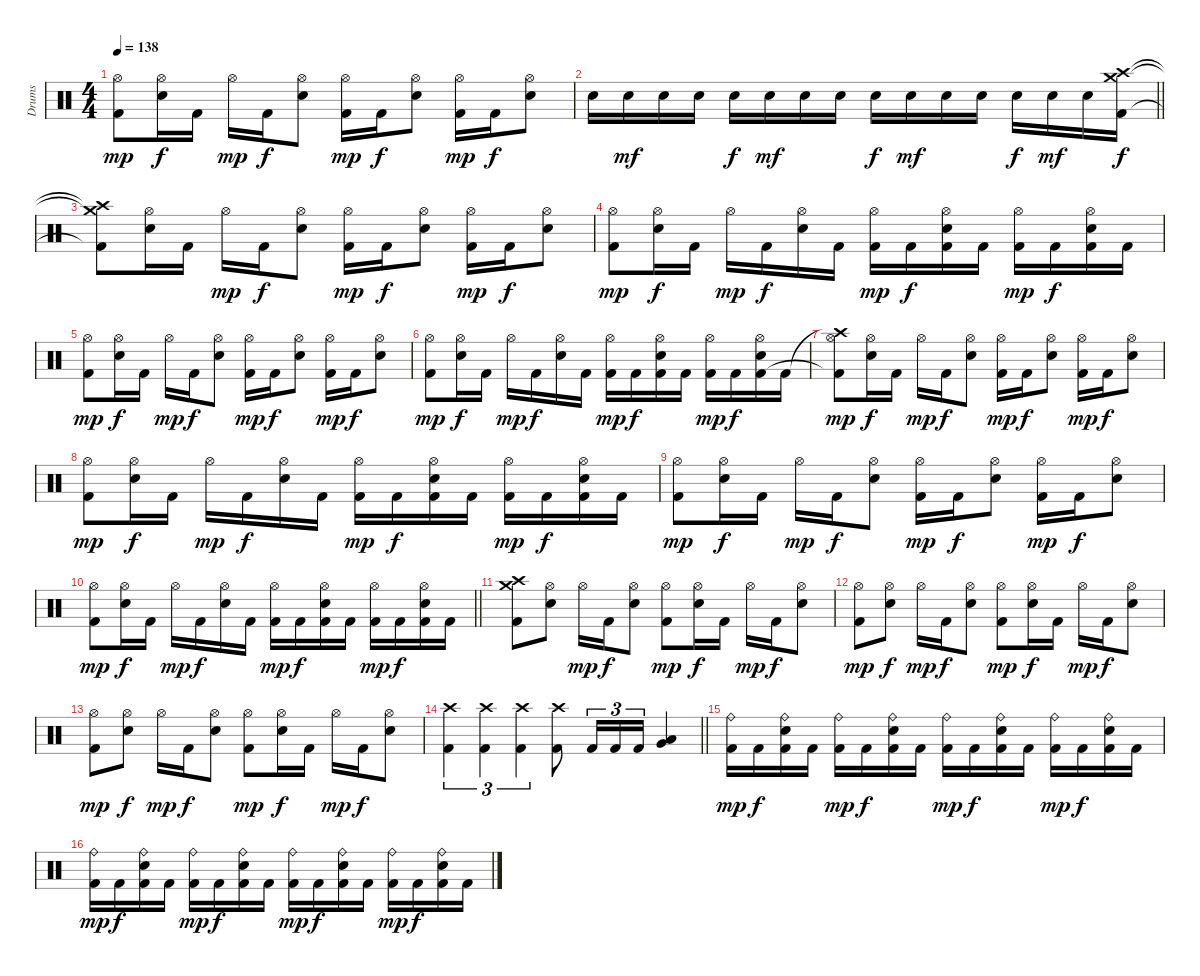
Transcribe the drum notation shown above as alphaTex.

\track ("Drums" "Drums") {instrument percussion}
\staff {score}
\articulation defaults
\ts (4 4)
\tempo 138
\clef neutral
\ks c
("Hi-Hat (open)" "Kick (hit) 2").8{dy mp} ("Hi-Hat (open)" "Electric Snare (hit)").16{dy f} "Kick (hit) 2".16 "Hi-Hat (open)".16{dy mp} "Kick (hit) 2".16{dy f} ("Hi-Hat (open)" "Electric Snare (hit)").8 ("Hi-Hat (open)" "Kick (hit) 2").16{dy mp} "Kick (hit) 2".16{dy f} ("Hi-Hat (open)" "Electric Snare (hit)").8 ("Hi-Hat (open)" "Kick (hit) 2").16{dy mp} "Kick (hit) 2".16{dy f} ("Hi-Hat (open)" "Electric Snare (hit)").8 |
\barLineRight lightlight "Electric Snare (hit)".16 "Electric Snare (hit)".16{dy mf} "Electric Snare (hit)".16 "Electric Snare (hit)".16 "Electric Snare (hit)".16{dy f} "Electric Snare (hit)".16{dy mf} "Electric Snare (hit)".16 "Electric Snare (hit)".16 "Electric Snare (hit)".16{dy f} "Electric Snare (hit)".16{dy mf} "Electric Snare (hit)".16 "Electric Snare (hit)".16 "Electric Snare (hit)".16{dy f} "Electric Snare (hit)".16{dy mf} "Electric Snare (hit)".16
("Crash high (hit)" "Crash medium (hit)" "Kick (hit) 2").16{dy f} |
("Crash high (hit)"{t} "Crash medium (hit)"{t} "Kick (hit) 2"{t}).8 ("Hi-Hat (open)" "Electric Snare (hit)").16 "Kick (hit) 2".16 "Hi-Hat (open)".16{dy mp} "Kick (hit) 2".16{dy f} ("Hi-Hat (open)" "Electric Snare (hit)").8 ("Hi-Hat (open)" "Kick (hit) 2").16{dy mp} "Kick (hit) 2".16{dy f} ("Hi-Hat (open)" "Electric Snare (hit)").8 ("Hi-Hat (open)" "Kick (hit) 2").16{dy mp} "Kick (hit) 2".16{dy f} ("Hi-Hat (open)" "Electric Snare (hit)").8 |
("Hi-Hat (open)" "Kick (hit) 2").8{dy mp} ("Hi-Hat (open)" "Electric Snare (hit)").16{dy f} "Kick (hit) 2".16 "Hi-Hat (open)".16{dy mp} "Kick (hit) 2".16{dy f} ("Hi-Hat (open)" "Electric Snare (hit)").16 "Kick (hit) 2".16 ("Hi-Hat (open)" "Kick (hit) 2").16{dy mp} "Kick (hit) 2".16{dy f} ("Hi-Hat (open)" "Electric Snare (hit)" "Kick (hit) 2").16 "Kick (hit) 2".16 ("Hi-Hat (open)" "Kick (hit) 2").16{dy mp} "Kick (hit) 2".16{dy f} ("Hi-Hat (open)" "Electric Snare (hit)" "Kick (hit) 2").16 "Kick (hit) 2".16 |
("Hi-Hat (open)" "Kick (hit) 2").8{dy mp} ("Hi-Hat (open)" "Electric Snare (hit)").16{dy f} "Kick (hit) 2".16 "Hi-Hat (open)".16{dy mp} "Kick (hit) 2".16{dy f} ("Hi-Hat (open)" "Electric Snare (hit)").8 ("Hi-Hat (open)" "Kick (hit) 2").16{dy mp} "Kick (hit) 2".16{dy f} ("Hi-Hat (open)" "Electric Snare (hit)").8 ("Hi-Hat (open)" "Kick (hit) 2").16{dy mp} "Kick (hit) 2".16{dy f} ("Hi-Hat (open)" "Electric Snare (hit)").8 |
("Hi-Hat (open)" "Kick (hit) 2").8{dy mp} ("Hi-Hat (open)" "Electric Snare (hit)").16{dy f} "Kick (hit) 2".16 "Hi-Hat (open)".16{dy mp} "Kick (hit) 2".16{dy f} ("Hi-Hat (open)" "Electric Snare (hit)").16 "Kick (hit) 2".16 ("Hi-Hat (open)" "Kick (hit) 2").16{dy mp} "Kick (hit) 2".16{dy f} ("Hi-Hat (open)" "Electric Snare (hit)" "Kick (hit) 2").16 "Kick (hit) 2".16 ("Hi-Hat (open)" "Kick (hit) 2").16{dy mp} "Kick (hit) 2".16{dy f} ("Hi-Hat (open)" "Electric Snare (hit)" "Kick (hit) 2").16 "Kick (hit) 2".16 |
("Crash high (hit)"{t} "Hi-Hat (open)" "Kick (hit) 2"{t}).8{dy mp} ("Hi-Hat (open)" "Electric Snare (hit)").16{dy f} "Kick (hit) 2".16 "Hi-Hat (open)".16{dy mp} "Kick (hit) 2".16{dy f} ("Hi-Hat (open)" "Electric Snare (hit)").8 ("Hi-Hat (open)" "Kick (hit) 2").16{dy mp} "Kick (hit) 2".16{dy f} ("Hi-Hat (open)" "Electric Snare (hit)").8 ("Hi-Hat (open)" "Kick (hit) 2").16{dy mp} "Kick (hit) 2".16{dy f} ("Hi-Hat (open)" "Electric Snare (hit)").8 |
("Hi-Hat (open)" "Kick (hit) 2").8{dy mp} ("Hi-Hat (open)" "Electric Snare (hit)").16{dy f} "Kick (hit) 2".16 "Hi-Hat (open)".16{dy mp} "Kick (hit) 2".16{dy f} ("Hi-Hat (open)" "Electric Snare (hit)").16 "Kick (hit) 2".16 ("Hi-Hat (open)" "Kick (hit) 2").16{dy mp} "Kick (hit) 2".16{dy f} ("Hi-Hat (open)" "Electric Snare (hit)" "Kick (hit) 2").16 "Kick (hit) 2".16 ("Hi-Hat (open)" "Kick (hit) 2").16{dy mp} "Kick (hit) 2".16{dy f} ("Hi-Hat (open)" "Electric Snare (hit)" "Kick (hit) 2").16 "Kick (hit) 2".16 |
("Hi-Hat (open)" "Kick (hit) 2").8{dy mp} ("Hi-Hat (open)" "Electric Snare (hit)").16{dy f} "Kick (hit) 2".16 "Hi-Hat (open)".16{dy mp} "Kick (hit) 2".16{dy f} ("Hi-Hat (open)" "Electric Snare (hit)").8 ("Hi-Hat (open)" "Kick (hit) 2").16{dy mp} "Kick (hit) 2".16{dy f} ("Hi-Hat (open)" "Electric Snare (hit)").8 ("Hi-Hat (open)" "Kick (hit) 2").16{dy mp} "Kick (hit) 2".16{dy f} ("Hi-Hat (open)" "Electric Snare (hit)").8 |
\barLineRight lightlight
("Hi-Hat (open)" "Kick (hit) 2").8{dy mp} ("Hi-Hat (open)" "Electric Snare (hit)").16{dy f} "Kick (hit) 2".16 "Hi-Hat (open)".16{dy mp} "Kick (hit) 2".16{dy f} ("Hi-Hat (open)" "Electric Snare (hit)").16 "Kick (hit) 2".16 ("Hi-Hat (open)" "Kick (hit) 2").16{dy mp} "Kick (hit) 2".16{dy f} ("Hi-Hat (open)" "Electric Snare (hit)" "Kick (hit) 2").16 "Kick (hit) 2".16 ("Hi-Hat (open)" "Kick (hit) 2").16{dy mp} "Kick (hit) 2".16{dy f} ("Hi-Hat (open)" "Electric Snare (hit)" "Kick (hit) 2").16 "Kick (hit) 2".16 |
("Crash high (hit)" "Crash medium (hit)" "Kick (hit) 2").8 ("Hi-Hat (open)" "Electric Snare (hit)").8 "Hi-Hat (open)".16{dy mp} "Kick (hit) 2".16{dy f} ("Hi-Hat (open)" "Electric Snare (hit)").8 ("Hi-Hat (open)" "Kick (hit) 2").8{dy mp} ("Hi-Hat (open)" "Electric Snare (hit)").16{dy f} "Kick (hit) 2".16 "Hi-Hat (open)".16{dy mp} "Kick (hit) 2".16{dy f} ("Hi-Hat (open)" "Electric Snare (hit)").8 |
("Hi-Hat (open)" "Kick (hit) 2").8{dy mp} ("Hi-Hat (open)" "Electric Snare (hit)").8{dy f} "Hi-Hat (open)".16{dy mp} "Kick (hit) 2".16{dy f} ("Hi-Hat (open)" "Electric Snare (hit)").8 ("Hi-Hat (open)" "Kick (hit) 2").8{dy mp} ("Hi-Hat (open)" "Electric Snare (hit)").16{dy f} "Kick (hit) 2".16 "Hi-Hat (open)".16{dy mp} "Kick (hit) 2".16{dy f} ("Hi-Hat (open)" "Electric Snare (hit)").8 |
("Hi-Hat (open)" "Kick (hit) 2").8{dy mp} ("Hi-Hat (open)" "Electric Snare (hit)").8{dy f} "Hi-Hat (open)".16{dy mp} "Kick (hit) 2".16{dy f} ("Hi-Hat (open)" "Electric Snare (hit)").8 ("Hi-Hat (open)" "Kick (hit) 2").8{dy mp} ("Hi-Hat (open)" "Electric Snare (hit)").16{dy f} "Kick (hit) 2".16 "Hi-Hat (open)".16{dy mp} "Kick (hit) 2".16{dy f} ("Hi-Hat (open)" "Electric Snare (hit)").8 |
\barLineRight lightlight
("Crash high (hit)" "Kick (hit) 2").4{tu (3 2)} ("Crash high (hit)" "Kick (hit) 2").4{tu (3 2)} ("Crash high (hit)" "Kick (hit) 2").4{tu (3 2)} ("Crash high (hit)" "Kick (hit) 2").8 "Kick (hit) 2".16{tu (3 2)} "Kick (hit) 2".16{tu (3 2)} "Kick (hit) 2".16{tu (3 2)} ("Low Tom (hit)" "Very Low Tom (hit)").4 |
("Ride (bell)" "Kick (hit) 2").16{dy mp} "Kick (hit) 2".16{dy f} ("Ride (bell)" "Electric Snare (hit)" "Kick (hit) 2").16 "Kick (hit) 2".16 ("Ride (bell)" "Kick (hit) 2").16{dy mp} "Kick (hit) 2".16{dy f} ("Ride (bell)" "Electric Snare (hit)" "Kick (hit) 2").16 "Kick (hit) 2".16 ("Ride (bell)" "Kick (hit) 2").16{dy mp} "Kick (hit) 2".16{dy f} ("Ride (bell)" "Electric Snare (hit)" "Kick (hit) 2").16 "Kick (hit) 2".16 ("Ride (bell)" "Kick (hit) 2").16{dy mp} "Kick (hit) 2".16{dy f} ("Ride (bell)" "Electric Snare (hit)" "Kick (hit) 2").16 "Kick (hit) 2".16 |
("Ride (bell)" "Kick (hit) 2").16{dy mp} "Kick (hit) 2".16{dy f} ("Ride (bell)" "Electric Snare (hit)" "Kick (hit) 2").16 "Kick (hit) 2".16 ("Ride (bell)" "Kick (hit) 2").16{dy mp} "Kick (hit) 2".16{dy f} ("Ride (bell)" "Electric Snare (hit)" "Kick (hit) 2").16 "Kick (hit) 2".16 ("Ride (bell)" "Kick (hit) 2").16{dy mp} "Kick (hit) 2".16{dy f} ("Ride (bell)" "Electric Snare (hit)" "Kick (hit) 2").16 "Kick (hit) 2".16 ("Ride (bell)" "Kick (hit) 2").16{dy mp} "Kick (hit) 2".16{dy f} ("Ride (bell)" "Electric Snare (hit)" "Kick (hit) 2").16 "Kick (hit) 2".16
